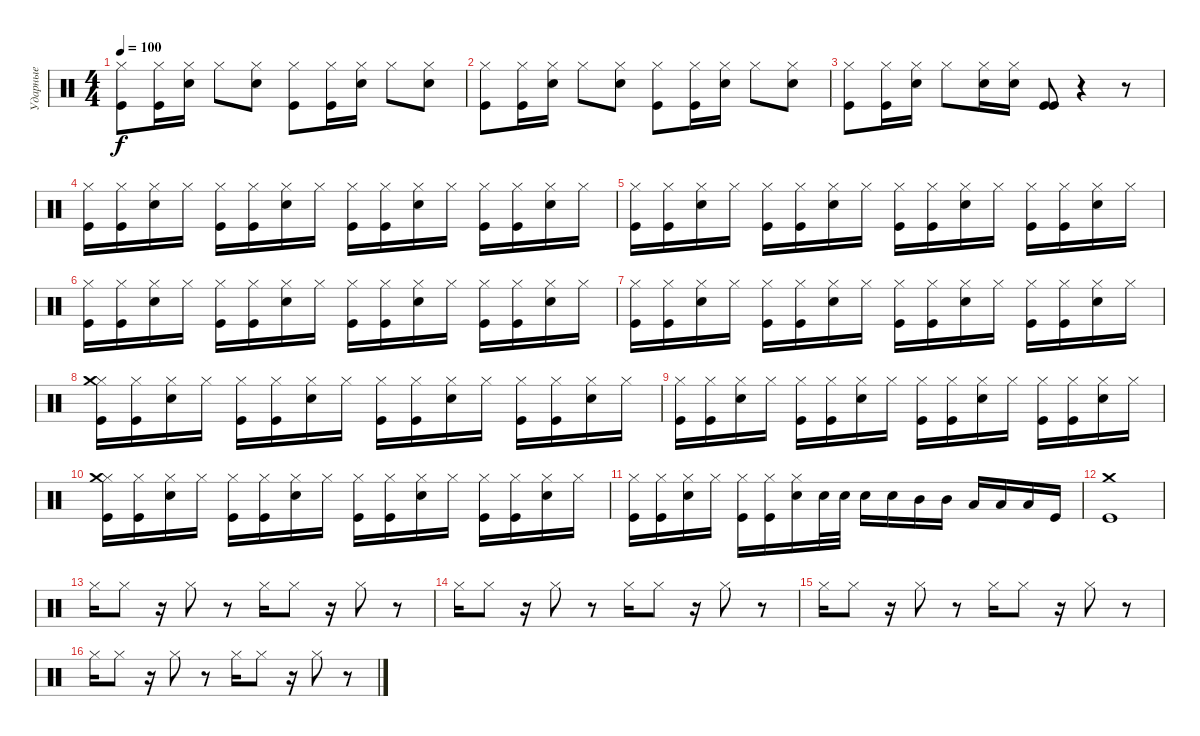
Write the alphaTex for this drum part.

\track ("Ударные" "Ударные") {instrument percussion}
\staff {score}
\articulation defaults
\ts (4 4)
\tempo 100
\clef neutral
\ks c
("Kick (hit)" "Hi-Hat (closed)").8{dy f} ("Kick (hit)" "Hi-Hat (closed)").16 ("Snare (hit) 2" "Hi-Hat (closed)").16 "Hi-Hat (closed)".8 ("Snare (hit) 2" "Hi-Hat (closed)").8 ("Kick (hit)" "Hi-Hat (closed)").8 ("Kick (hit)" "Hi-Hat (closed)").16 ("Snare (hit) 2" "Hi-Hat (closed)").16 "Hi-Hat (closed)".8 ("Snare (hit) 2" "Hi-Hat (closed)").8 |
("Kick (hit)" "Hi-Hat (closed)").8 ("Kick (hit)" "Hi-Hat (closed)").16 ("Snare (hit) 2" "Hi-Hat (closed)").16 "Hi-Hat (closed)".8 ("Snare (hit) 2" "Hi-Hat (closed)").8 ("Kick (hit)" "Hi-Hat (closed)").8 ("Kick (hit)" "Hi-Hat (closed)").16 ("Snare (hit) 2" "Hi-Hat (closed)").16 "Hi-Hat (closed)".8 ("Snare (hit) 2" "Hi-Hat (closed)").8 |
("Kick (hit)" "Hi-Hat (closed)").8 ("Kick (hit)" "Hi-Hat (closed)").16 ("Snare (hit) 2" "Hi-Hat (closed)").16 "Hi-Hat (closed)".8 ("Snare (hit) 2" "Hi-Hat (closed)").16 ("Snare (hit) 2" "Hi-Hat (closed)").16 ("Kick (hit)" "Kick (hit)").8 r.4 r.8 |
("Kick (hit)" "Hi-Hat (closed)").16 ("Kick (hit)" "Hi-Hat (closed)").16 ("Snare (hit) 2" "Hi-Hat (closed)").16 "Hi-Hat (closed)".16 ("Kick (hit)" "Hi-Hat (closed)").16 ("Kick (hit)" "Hi-Hat (closed)").16 ("Snare (hit) 2" "Hi-Hat (closed)").16 "Hi-Hat (closed)".16 ("Kick (hit)" "Hi-Hat (closed)").16 ("Kick (hit)" "Hi-Hat (closed)").16 ("Snare (hit) 2" "Hi-Hat (closed)").16 "Hi-Hat (closed)".16 ("Kick (hit)" "Hi-Hat (closed)").16 ("Kick (hit)" "Hi-Hat (closed)").16 ("Snare (hit) 2" "Hi-Hat (closed)").16 "Hi-Hat (closed)".16 |
("Kick (hit)" "Hi-Hat (closed)").16 ("Kick (hit)" "Hi-Hat (closed)").16 ("Snare (hit) 2" "Hi-Hat (closed)").16 "Hi-Hat (closed)".16 ("Kick (hit)" "Hi-Hat (closed)").16 ("Kick (hit)" "Hi-Hat (closed)").16 ("Snare (hit) 2" "Hi-Hat (closed)").16 "Hi-Hat (closed)".16 ("Kick (hit)" "Hi-Hat (closed)").16 ("Kick (hit)" "Hi-Hat (closed)").16 ("Snare (hit) 2" "Hi-Hat (closed)").16 "Hi-Hat (closed)".16 ("Kick (hit)" "Hi-Hat (closed)").16 ("Kick (hit)" "Hi-Hat (closed)").16 ("Snare (hit) 2" "Hi-Hat (closed)").16 "Hi-Hat (closed)".16 |
("Kick (hit)" "Hi-Hat (closed)").16 ("Kick (hit)" "Hi-Hat (closed)").16 ("Snare (hit) 2" "Hi-Hat (closed)").16 "Hi-Hat (closed)".16 ("Kick (hit)" "Hi-Hat (closed)").16 ("Kick (hit)" "Hi-Hat (closed)").16 ("Snare (hit) 2" "Hi-Hat (closed)").16 "Hi-Hat (closed)".16 ("Kick (hit)" "Hi-Hat (closed)").16 ("Kick (hit)" "Hi-Hat (closed)").16 ("Snare (hit) 2" "Hi-Hat (closed)").16 "Hi-Hat (closed)".16 ("Kick (hit)" "Hi-Hat (closed)").16 ("Kick (hit)" "Hi-Hat (closed)").16 ("Snare (hit) 2" "Hi-Hat (closed)").16 "Hi-Hat (closed)".16 |
("Kick (hit)" "Hi-Hat (closed)").16 ("Kick (hit)" "Hi-Hat (closed)").16 ("Snare (hit) 2" "Hi-Hat (closed)").16 "Hi-Hat (closed)".16 ("Kick (hit)" "Hi-Hat (closed)").16 ("Kick (hit)" "Hi-Hat (closed)").16 ("Snare (hit) 2" "Hi-Hat (closed)").16 "Hi-Hat (closed)".16 ("Kick (hit)" "Hi-Hat (closed)").16 ("Kick (hit)" "Hi-Hat (closed)").16 ("Snare (hit) 2" "Hi-Hat (closed)").16 "Hi-Hat (closed)".16 ("Kick (hit)" "Hi-Hat (closed)").16 ("Kick (hit)" "Hi-Hat (closed)").16 ("Snare (hit) 2" "Hi-Hat (closed)").16 "Hi-Hat (closed)".16 |
("Kick (hit)" "Hi-Hat (closed)" "Crash medium (hit)").16 ("Kick (hit)" "Hi-Hat (closed)").16 ("Snare (hit) 2" "Hi-Hat (closed)").16 "Hi-Hat (closed)".16 ("Kick (hit)" "Hi-Hat (closed)").16 ("Kick (hit)" "Hi-Hat (closed)").16 ("Snare (hit) 2" "Hi-Hat (closed)").16 "Hi-Hat (closed)".16 ("Kick (hit)" "Hi-Hat (closed)").16 ("Kick (hit)" "Hi-Hat (closed)").16 ("Snare (hit) 2" "Hi-Hat (closed)").16 "Hi-Hat (closed)".16 ("Kick (hit)" "Hi-Hat (closed)").16 ("Kick (hit)" "Hi-Hat (closed)").16 ("Snare (hit) 2" "Hi-Hat (closed)").16 "Hi-Hat (closed)".16 |
("Kick (hit)" "Hi-Hat (closed)").16 ("Kick (hit)" "Hi-Hat (closed)").16 ("Snare (hit) 2" "Hi-Hat (closed)").16 "Hi-Hat (closed)".16 ("Kick (hit)" "Hi-Hat (closed)").16 ("Kick (hit)" "Hi-Hat (closed)").16 ("Snare (hit) 2" "Hi-Hat (closed)").16 "Hi-Hat (closed)".16 ("Kick (hit)" "Hi-Hat (closed)").16 ("Kick (hit)" "Hi-Hat (closed)").16 ("Snare (hit) 2" "Hi-Hat (closed)").16 "Hi-Hat (closed)".16 ("Kick (hit)" "Hi-Hat (closed)").16 ("Kick (hit)" "Hi-Hat (closed)").16 ("Snare (hit) 2" "Hi-Hat (closed)").16 "Hi-Hat (closed)".16 |
("Kick (hit)" "Hi-Hat (closed)" "Crash medium (hit)").16 ("Kick (hit)" "Hi-Hat (closed)").16 ("Snare (hit) 2" "Hi-Hat (closed)").16 "Hi-Hat (closed)".16 ("Kick (hit)" "Hi-Hat (closed)").16 ("Kick (hit)" "Hi-Hat (closed)").16 ("Snare (hit) 2" "Hi-Hat (closed)").16 "Hi-Hat (closed)".16 ("Kick (hit)" "Hi-Hat (closed)").16 ("Kick (hit)" "Hi-Hat (closed)").16 ("Snare (hit) 2" "Hi-Hat (closed)").16 "Hi-Hat (closed)".16 ("Kick (hit)" "Hi-Hat (closed)").16 ("Kick (hit)" "Hi-Hat (closed)").16 ("Snare (hit) 2" "Hi-Hat (closed)").16 "Hi-Hat (closed)".16 |
("Kick (hit)" "Hi-Hat (closed)").16 ("Kick (hit)" "Hi-Hat (closed)").16 ("Snare (hit) 2" "Hi-Hat (closed)").16 "Hi-Hat (closed)".16 ("Kick (hit)" "Hi-Hat (closed)").16 ("Kick (hit)" "Hi-Hat (closed)").16 ("Snare (hit) 2" "Hi-Hat (closed)").16 "Snare (hit) 2".32 "Snare (hit) 2".32 "Snare (hit) 2".16 "Snare (hit) 2".16 "Mid Tom (hit)".16 "Mid Tom (hit)".16 "Low Tom (hit)".16 "Low Tom (hit)".16 "Low Tom (hit)".16 "Kick (hit)".16 |
("Kick (hit)" "Crash medium (hit)").1 |
"Hi-Hat (closed)".16 "Hi-Hat (closed)".8 r.16 "Hi-Hat (closed)".8 r.8 "Hi-Hat (closed)".16 "Hi-Hat (closed)".8 r.16 "Hi-Hat (closed)".8 r.8 |
"Hi-Hat (closed)".16 "Hi-Hat (closed)".8 r.16 "Hi-Hat (closed)".8 r.8 "Hi-Hat (closed)".16 "Hi-Hat (closed)".8 r.16 "Hi-Hat (closed)".8 r.8 |
"Hi-Hat (closed)".16 "Hi-Hat (closed)".8 r.16 "Hi-Hat (closed)".8 r.8 "Hi-Hat (closed)".16 "Hi-Hat (closed)".8 r.16 "Hi-Hat (closed)".8 r.8 |
"Hi-Hat (closed)".16 "Hi-Hat (closed)".8 r.16 "Hi-Hat (closed)".8 r.8 "Hi-Hat (closed)".16 "Hi-Hat (closed)".8 r.16 "Hi-Hat (closed)".8 r.8
